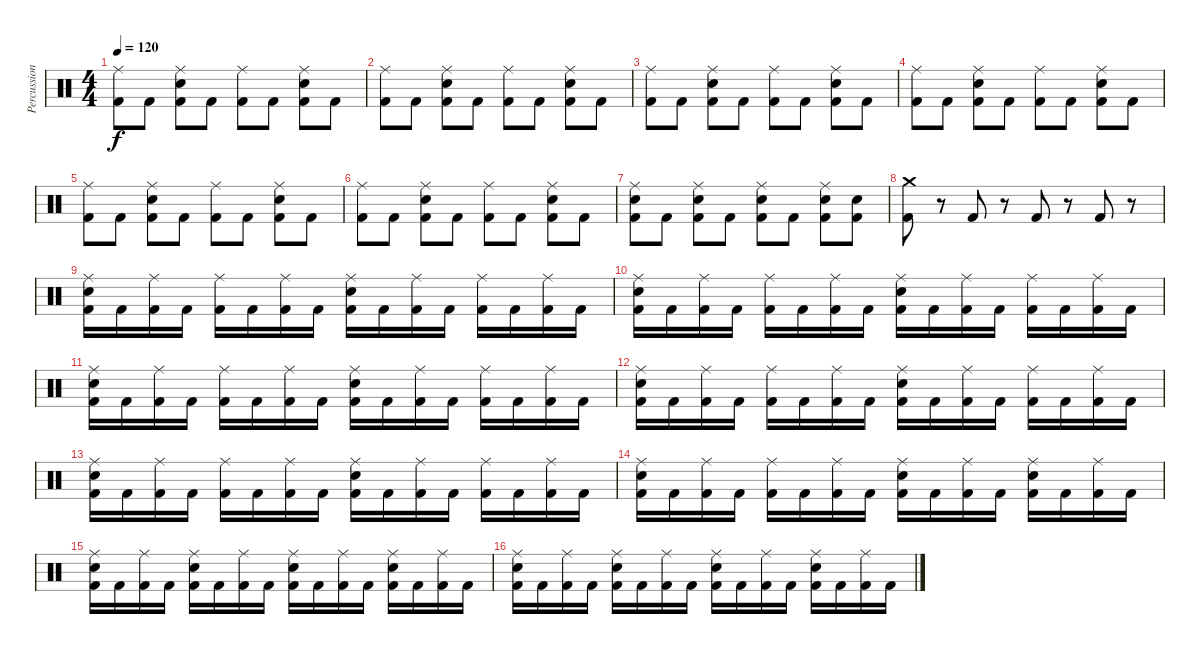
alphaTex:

\track ("Percussions" "Percussion") {instrument percussion}
\staff {score}
\articulation defaults
\ts (4 4)
\tempo 120
\clef neutral
\ks c
("Ride (middle)" "Kick (hit) 2").8{dy f} "Kick (hit) 2".8 ("Electric Snare (hit)" "Ride (middle)" "Kick (hit) 2").8 "Kick (hit) 2".8 ("Ride (middle)" "Kick (hit) 2").8 "Kick (hit) 2".8 ("Electric Snare (hit)" "Ride (middle)" "Kick (hit) 2").8 "Kick (hit) 2".8 |
("Ride (middle)" "Kick (hit) 2").8 "Kick (hit) 2".8 ("Electric Snare (hit)" "Ride (middle)" "Kick (hit) 2").8 "Kick (hit) 2".8 ("Ride (middle)" "Kick (hit) 2").8 "Kick (hit) 2".8 ("Electric Snare (hit)" "Ride (middle)" "Kick (hit) 2").8 "Kick (hit) 2".8 |
("Ride (middle)" "Kick (hit) 2").8 "Kick (hit) 2".8 ("Electric Snare (hit)" "Ride (middle)" "Kick (hit) 2").8 "Kick (hit) 2".8 ("Ride (middle)" "Kick (hit) 2").8 "Kick (hit) 2".8 ("Electric Snare (hit)" "Ride (middle)" "Kick (hit) 2").8 "Kick (hit) 2".8 |
("Ride (middle)" "Kick (hit) 2").8 "Kick (hit) 2".8 ("Electric Snare (hit)" "Ride (middle)" "Kick (hit) 2").8 "Kick (hit) 2".8 ("Ride (middle)" "Kick (hit) 2").8 "Kick (hit) 2".8 ("Electric Snare (hit)" "Ride (middle)" "Kick (hit) 2").8 "Kick (hit) 2".8 |
("Ride (middle)" "Kick (hit) 2").8 "Kick (hit) 2".8 ("Electric Snare (hit)" "Ride (middle)" "Kick (hit) 2").8 "Kick (hit) 2".8 ("Ride (middle)" "Kick (hit) 2").8 "Kick (hit) 2".8 ("Electric Snare (hit)" "Ride (middle)" "Kick (hit) 2").8 "Kick (hit) 2".8 |
("Ride (middle)" "Kick (hit) 2").8 "Kick (hit) 2".8 ("Electric Snare (hit)" "Ride (middle)" "Kick (hit) 2").8 "Kick (hit) 2".8 ("Ride (middle)" "Kick (hit) 2").8 "Kick (hit) 2".8 ("Electric Snare (hit)" "Ride (middle)" "Kick (hit) 2").8 "Kick (hit) 2".8 |
("Electric Snare (hit)" "Ride (middle)" "Kick (hit) 2").8 "Kick (hit) 2".8 ("Electric Snare (hit)" "Ride (middle)" "Kick (hit) 2").8 "Kick (hit) 2".8 ("Electric Snare (hit)" "Ride (middle)" "Kick (hit) 2").8 "Kick (hit) 2".8 ("Electric Snare (hit)" "Ride (middle)" "Kick (hit) 2").8 ("Electric Snare (hit)" "Kick (hit) 2").8 |
("Kick (hit) 2" "Crash medium (hit)").8 r.8 "Kick (hit) 2".8 r.8 "Kick (hit) 2".8 r.8 "Kick (hit) 2".8 r.8 |
("Electric Snare (hit)" "Ride (middle)" "Kick (hit) 2").16 "Kick (hit) 2".16 ("Ride (middle)" "Kick (hit) 2").16 "Kick (hit) 2".16 ("Ride (middle)" "Kick (hit) 2").16 "Kick (hit) 2".16 ("Ride (middle)" "Kick (hit) 2").16 "Kick (hit) 2".16 ("Electric Snare (hit)" "Ride (middle)" "Kick (hit) 2").16 "Kick (hit) 2".16 ("Ride (middle)" "Kick (hit) 2").16 "Kick (hit) 2".16 ("Ride (middle)" "Kick (hit) 2").16 "Kick (hit) 2".16 ("Ride (middle)" "Kick (hit) 2").16 "Kick (hit) 2".16 |
("Electric Snare (hit)" "Ride (middle)" "Kick (hit) 2").16 "Kick (hit) 2".16 ("Ride (middle)" "Kick (hit) 2").16 "Kick (hit) 2".16 ("Ride (middle)" "Kick (hit) 2").16 "Kick (hit) 2".16 ("Ride (middle)" "Kick (hit) 2").16 "Kick (hit) 2".16 ("Electric Snare (hit)" "Ride (middle)" "Kick (hit) 2").16 "Kick (hit) 2".16 ("Ride (middle)" "Kick (hit) 2").16 "Kick (hit) 2".16 ("Ride (middle)" "Kick (hit) 2").16 "Kick (hit) 2".16 ("Ride (middle)" "Kick (hit) 2").16 "Kick (hit) 2".16 |
("Electric Snare (hit)" "Ride (middle)" "Kick (hit) 2").16 "Kick (hit) 2".16 ("Ride (middle)" "Kick (hit) 2").16 "Kick (hit) 2".16 ("Ride (middle)" "Kick (hit) 2").16 "Kick (hit) 2".16 ("Ride (middle)" "Kick (hit) 2").16 "Kick (hit) 2".16 ("Electric Snare (hit)" "Ride (middle)" "Kick (hit) 2").16 "Kick (hit) 2".16 ("Ride (middle)" "Kick (hit) 2").16 "Kick (hit) 2".16 ("Ride (middle)" "Kick (hit) 2").16 "Kick (hit) 2".16 ("Ride (middle)" "Kick (hit) 2").16 "Kick (hit) 2".16 |
("Electric Snare (hit)" "Ride (middle)" "Kick (hit) 2").16 "Kick (hit) 2".16 ("Ride (middle)" "Kick (hit) 2").16 "Kick (hit) 2".16 ("Ride (middle)" "Kick (hit) 2").16 "Kick (hit) 2".16 ("Ride (middle)" "Kick (hit) 2").16 "Kick (hit) 2".16 ("Electric Snare (hit)" "Ride (middle)" "Kick (hit) 2").16 "Kick (hit) 2".16 ("Ride (middle)" "Kick (hit) 2").16 "Kick (hit) 2".16 ("Ride (middle)" "Kick (hit) 2").16 "Kick (hit) 2".16 ("Ride (middle)" "Kick (hit) 2").16 "Kick (hit) 2".16 |
("Electric Snare (hit)" "Ride (middle)" "Kick (hit) 2").16 "Kick (hit) 2".16 ("Ride (middle)" "Kick (hit) 2").16 "Kick (hit) 2".16 ("Ride (middle)" "Kick (hit) 2").16 "Kick (hit) 2".16 ("Ride (middle)" "Kick (hit) 2").16 "Kick (hit) 2".16 ("Electric Snare (hit)" "Ride (middle)" "Kick (hit) 2").16 "Kick (hit) 2".16 ("Ride (middle)" "Kick (hit) 2").16 "Kick (hit) 2".16 ("Ride (middle)" "Kick (hit) 2").16 "Kick (hit) 2".16 ("Ride (middle)" "Kick (hit) 2").16 "Kick (hit) 2".16 |
("Electric Snare (hit)" "Ride (middle)" "Kick (hit) 2").16 "Kick (hit) 2".16 ("Ride (middle)" "Kick (hit) 2").16 "Kick (hit) 2".16 ("Ride (middle)" "Kick (hit) 2").16 "Kick (hit) 2".16 ("Ride (middle)" "Kick (hit) 2").16 "Kick (hit) 2".16 ("Electric Snare (hit)" "Ride (middle)" "Kick (hit) 2").16 "Kick (hit) 2".16 ("Ride (middle)" "Kick (hit) 2").16 "Kick (hit) 2".16 ("Electric Snare (hit)" "Ride (middle)" "Kick (hit) 2").16 "Kick (hit) 2".16 ("Ride (middle)" "Kick (hit) 2").16 "Kick (hit) 2".16 |
("Electric Snare (hit)" "Ride (middle)" "Kick (hit) 2").16 "Kick (hit) 2".16 ("Ride (middle)" "Kick (hit) 2").16 "Kick (hit) 2".16 ("Electric Snare (hit)" "Ride (middle)" "Kick (hit) 2").16 "Kick (hit) 2".16 ("Ride (middle)" "Kick (hit) 2").16 "Kick (hit) 2".16 ("Electric Snare (hit)" "Ride (middle)" "Kick (hit) 2").16 "Kick (hit) 2".16 ("Ride (middle)" "Kick (hit) 2").16 "Kick (hit) 2".16 ("Electric Snare (hit)" "Ride (middle)" "Kick (hit) 2").16 "Kick (hit) 2".16 ("Ride (middle)" "Kick (hit) 2").16 "Kick (hit) 2".16 |
("Electric Snare (hit)" "Ride (middle)" "Kick (hit) 2").16 "Kick (hit) 2".16 ("Ride (middle)" "Kick (hit) 2").16 "Kick (hit) 2".16 ("Electric Snare (hit)" "Ride (middle)" "Kick (hit) 2").16 "Kick (hit) 2".16 ("Ride (middle)" "Kick (hit) 2").16 "Kick (hit) 2".16 ("Electric Snare (hit)" "Ride (middle)" "Kick (hit) 2").16 "Kick (hit) 2".16 ("Ride (middle)" "Kick (hit) 2").16 "Kick (hit) 2".16 ("Electric Snare (hit)" "Ride (middle)" "Kick (hit) 2").16 "Kick (hit) 2".16 ("Ride (middle)" "Kick (hit) 2").16 "Kick (hit) 2".16
